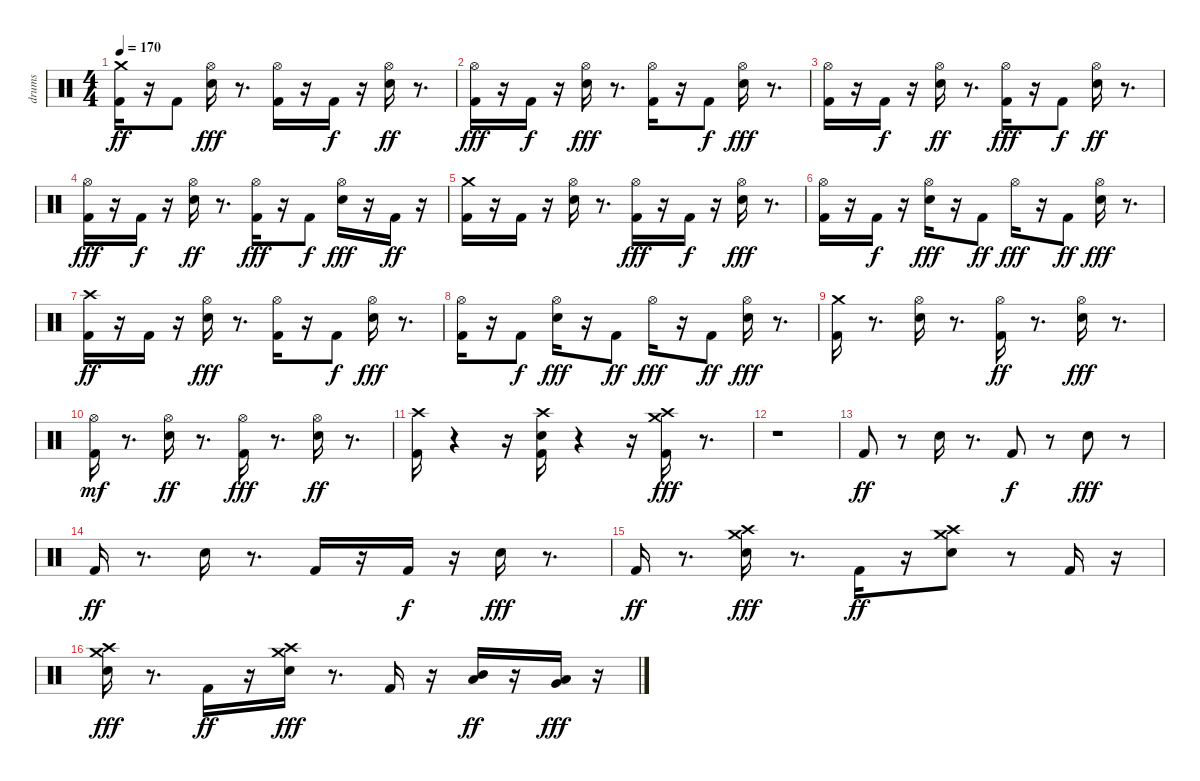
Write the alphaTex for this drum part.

\track ("drums" "drums") {instrument percussion}
\staff {score}
\articulation defaults
\ts (4 4)
\tempo 170
\clef neutral
\ks c
("Kick (hit) 2" "Crash medium (hit)").16{dy ff} r.16 "Kick (hit) 2".8 ("Hi-Hat (open)" "Snare (hit) 2").16{dy fff} r.8{d} ("Kick (hit) 2" "Hi-Hat (open)").16 r.16 "Kick (hit) 2".16{dy f} r.16 ("Hi-Hat (open)" "Snare (hit) 2").16{dy ff} r.8{d} |
("Hi-Hat (open)" "Kick (hit) 2").16{dy fff} r.16 "Kick (hit) 2".16{dy f} r.16 ("Snare (hit) 2" "Hi-Hat (open)").16{dy fff} r.8{d} ("Kick (hit) 2" "Hi-Hat (open)").16 r.16 "Kick (hit) 2".8{dy f} ("Snare (hit) 2" "Hi-Hat (open)").16{dy fff} r.8{d} |
("Kick (hit) 2" "Hi-Hat (open)").16 r.16 "Kick (hit) 2".16{dy f} r.16 ("Hi-Hat (open)" "Snare (hit) 2").16{dy ff} r.8{d} ("Kick (hit) 2" "Hi-Hat (open)").16{dy fff} r.16 "Kick (hit) 2".8{dy f} ("Hi-Hat (open)" "Snare (hit) 2").16{dy ff} r.8{d} |
("Kick (hit) 2" "Hi-Hat (open)").16{dy fff} r.16 "Kick (hit) 2".16{dy f} r.16 ("Hi-Hat (open)" "Snare (hit) 2").16{dy ff} r.8{d} ("Kick (hit) 2" "Hi-Hat (open)").16{dy fff} r.16 "Kick (hit) 2".8{dy f} ("Snare (hit) 2" "Hi-Hat (open)").16{dy fff} r.16 "Kick (hit) 2".16{dy ff} r.16 |
("Crash medium (hit)" "Kick (hit) 2").16 r.16 "Kick (hit) 2".16 r.16 ("Snare (hit) 2" "Hi-Hat (open)").16 r.8{d} ("Kick (hit) 2" "Hi-Hat (open)").16{dy fff} r.16 "Kick (hit) 2".16{dy f} r.16 ("Snare (hit) 2" "Hi-Hat (open)").16{dy fff} r.8{d} |
("Kick (hit) 2" "Hi-Hat (open)").16 r.16 "Kick (hit) 2".16{dy f} r.16 ("Snare (hit) 2" "Hi-Hat (open)").16{dy fff} r.16 "Kick (hit) 2".8{dy ff} "Hi-Hat (open)".16{dy fff} r.16 "Kick (hit) 2".8{dy ff} ("Snare (hit) 2" "Hi-Hat (open)").16{dy fff} r.8{d} |
("Crash high (hit)" "Kick (hit) 2").16{dy ff} r.16 "Kick (hit) 2".16 r.16 ("Hi-Hat (open)" "Snare (hit) 2").16{dy fff} r.8{d} ("Kick (hit) 2" "Hi-Hat (open)").16 r.16 "Kick (hit) 2".8{dy f} ("Snare (hit) 2" "Hi-Hat (open)").16{dy fff} r.8{d} |
("Kick (hit) 2" "Hi-Hat (open)").16 r.16 "Kick (hit) 2".8{dy f} ("Snare (hit) 2" "Hi-Hat (open)").16{dy fff} r.16 "Kick (hit) 2".8{dy ff} "Hi-Hat (open)".16{dy fff} r.16 "Kick (hit) 2".8{dy ff} ("Snare (hit) 2" "Hi-Hat (open)").16{dy fff} r.8{d} |
("Crash medium (hit)" "Kick (hit) 2").16 r.8{d} ("Snare (hit) 2" "Hi-Hat (open)").16 r.8{d} ("Hi-Hat (open)" "Kick (hit) 2").16{dy ff} r.8{d} ("Hi-Hat (open)" "Snare (hit) 2").16{dy fff} r.8{d} |
("Hi-Hat (open)" "Kick (hit) 2").16{dy mf} r.8{d} ("Hi-Hat (open)" "Snare (hit) 2").16{dy ff} r.8{d} ("Kick (hit) 2" "Hi-Hat (open)").16{dy fff} r.8{d} ("Hi-Hat (open)" "Snare (hit) 2").16{dy ff} r.8{d} |
("Crash high (hit)" "Kick (hit) 2").16 r.4 r.16 ("Crash high (hit)" "Kick (hit) 2" "Snare (hit) 2").16 r.4 r.16 ("Crash medium (hit)" "Kick (hit) 2" "Crash high (hit)").16{dy fff} r.8{d} |
r.1 |
"Kick (hit) 2".8{dy ff} r.8 "Snare (hit) 2".16 r.8{d} "Kick (hit) 2".8{dy f} r.8 "Snare (hit) 2".8{dy fff} r.8 |
"Kick (hit) 2".16{dy ff} r.8{d} "Snare (hit) 2".16 r.8{d} "Kick (hit) 2".16 r.16 "Kick (hit) 2".16{dy f} r.16 "Snare (hit) 2".16{dy fff} r.8{d} |
"Kick (hit) 2".16{dy ff} r.8{d} ("Snare (hit) 2" "Crash high (hit)" "Crash medium (hit)").16{dy fff} r.8{d} "Kick (hit) 2".16{dy ff} r.16 ("Snare (hit) 2" "Crash high (hit)" "Crash medium (hit)").8 r.8 "Kick (hit) 2".16 r.16 |
("Snare (hit) 2" "Crash high (hit)" "Crash medium (hit)").16{dy fff} r.8{d} "Kick (hit) 2".16{dy ff} r.16 ("Snare (hit) 2" "Crash medium (hit)" "Crash high (hit)").16{dy fff} r.8{d} "Kick (hit) 2".16 r.16 ("Mid Tom (hit)" "Low Tom (hit)").16{dy ff} r.16 ("Very Low Tom (hit)" "Low Tom (hit)").16{dy fff} r.16
